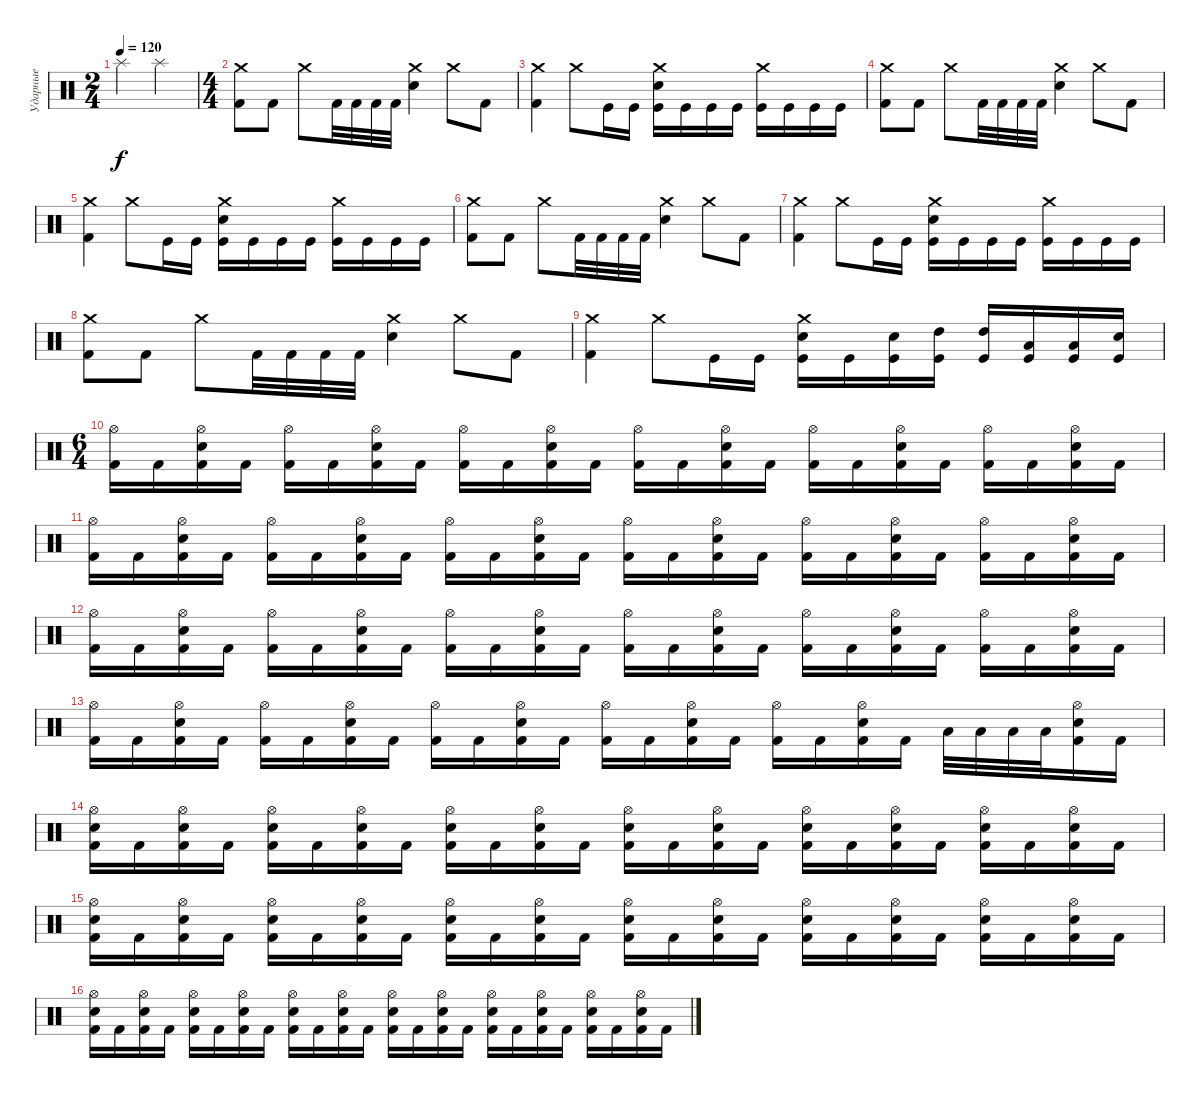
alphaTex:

\track ("Ударные" "Ударные") {instrument percussion}
\staff {score}
\articulation defaults
\ts (2 4)
\tempo 120
\clef neutral
\ks c "Splash (hit)".4{dy f} "Splash (hit)".4
|
\ts (4 4)
("Crash medium (hit)" "Kick (hit) 2").8 "Kick (hit) 2".8 "Crash medium (hit)".8 "Kick (hit) 2".32 "Kick (hit) 2".32 "Kick (hit) 2".32 "Kick (hit) 2".32 ("Crash medium (hit)" "Snare (hit) 2").4 "Crash medium (hit)".8 "Kick (hit) 2".8 |
("Crash medium (hit)" "Kick (hit) 2").4 "Crash medium (hit)".8 "Kick (hit)".16 "Kick (hit)".16 ("Crash medium (hit)" "Snare (hit) 2" "Kick (hit)").16 "Kick (hit)".16 "Kick (hit)".16 "Kick (hit)".16 ("Crash medium (hit)" "Kick (hit)").16 "Kick (hit)".16 "Kick (hit)".16 "Kick (hit)".16 |
("Crash medium (hit)" "Kick (hit) 2").8 "Kick (hit) 2".8 "Crash medium (hit)".8 "Kick (hit) 2".32 "Kick (hit) 2".32 "Kick (hit) 2".32 "Kick (hit) 2".32 ("Crash medium (hit)" "Snare (hit) 2").4 "Crash medium (hit)".8 "Kick (hit) 2".8 |
("Crash medium (hit)" "Kick (hit) 2").4 "Crash medium (hit)".8 "Kick (hit)".16 "Kick (hit)".16 ("Crash medium (hit)" "Snare (hit) 2" "Kick (hit)").16 "Kick (hit)".16 "Kick (hit)".16 "Kick (hit)".16 ("Crash medium (hit)" "Kick (hit)").16 "Kick (hit)".16 "Kick (hit)".16 "Kick (hit)".16 |
("Crash medium (hit)" "Kick (hit) 2").8 "Kick (hit) 2".8 "Crash medium (hit)".8 "Kick (hit) 2".32 "Kick (hit) 2".32 "Kick (hit) 2".32 "Kick (hit) 2".32 ("Crash medium (hit)" "Snare (hit) 2").4 "Crash medium (hit)".8 "Kick (hit) 2".8 |
("Crash medium (hit)" "Kick (hit) 2").4 "Crash medium (hit)".8 "Kick (hit)".16 "Kick (hit)".16 ("Crash medium (hit)" "Snare (hit) 2" "Kick (hit)").16 "Kick (hit)".16 "Kick (hit)".16 "Kick (hit)".16 ("Crash medium (hit)" "Kick (hit)").16 "Kick (hit)".16 "Kick (hit)".16 "Kick (hit)".16 |
("Crash medium (hit)" "Kick (hit) 2").8 "Kick (hit) 2".8 "Crash medium (hit)".8 "Kick (hit) 2".32 "Kick (hit) 2".32 "Kick (hit) 2".32 "Kick (hit) 2".32 ("Crash medium (hit)" "Snare (hit) 2").4 "Crash medium (hit)".8 "Kick (hit) 2".8 |
("Crash medium (hit)" "Kick (hit) 2").4 "Crash medium (hit)".8 "Kick (hit)".16 "Kick (hit)".16 ("Crash medium (hit)" "Snare (hit) 2" "Kick (hit)").16 "Kick (hit)".16 ("Snare (hit) 2" "Kick (hit)").16 ("High Tom (hit)" "Kick (hit)").16 ("High Tom (hit)" "Kick (hit)").16 ("Low Tom (hit)" "Kick (hit)").16 ("Low Tom (hit)" "Kick (hit)").16 ("Snare (hit) 2" "Kick (hit)").16 |
\ts (6 4)
("Hi-Hat (open)" "Kick (hit) 2").16 "Kick (hit) 2".16 ("Hi-Hat (open)" "Snare (hit) 2" "Kick (hit) 2").16 "Kick (hit) 2".16 ("Hi-Hat (open)" "Kick (hit) 2").16 "Kick (hit) 2".16 ("Hi-Hat (open)" "Snare (hit) 2" "Kick (hit) 2").16 "Kick (hit) 2".16 ("Hi-Hat (open)" "Kick (hit) 2").16 "Kick (hit) 2".16 ("Hi-Hat (open)" "Snare (hit) 2" "Kick (hit) 2").16 "Kick (hit) 2".16 ("Hi-Hat (open)" "Kick (hit) 2").16 "Kick (hit) 2".16 ("Hi-Hat (open)" "Snare (hit) 2" "Kick (hit) 2").16 "Kick (hit) 2".16 ("Hi-Hat (open)" "Kick (hit) 2").16 "Kick (hit) 2".16 ("Hi-Hat (open)" "Snare (hit) 2" "Kick (hit) 2").16 "Kick (hit) 2".16 ("Hi-Hat (open)" "Kick (hit) 2").16 "Kick (hit) 2".16 ("Hi-Hat (open)" "Snare (hit) 2" "Kick (hit) 2").16 "Kick (hit) 2".16 |
("Hi-Hat (open)" "Kick (hit) 2").16 "Kick (hit) 2".16 ("Hi-Hat (open)" "Snare (hit) 2" "Kick (hit) 2").16 "Kick (hit) 2".16 ("Hi-Hat (open)" "Kick (hit) 2").16 "Kick (hit) 2".16 ("Hi-Hat (open)" "Snare (hit) 2" "Kick (hit) 2").16 "Kick (hit) 2".16 ("Hi-Hat (open)" "Kick (hit) 2").16 "Kick (hit) 2".16 ("Hi-Hat (open)" "Snare (hit) 2" "Kick (hit) 2").16 "Kick (hit) 2".16 ("Hi-Hat (open)" "Kick (hit) 2").16 "Kick (hit) 2".16 ("Hi-Hat (open)" "Snare (hit) 2" "Kick (hit) 2").16 "Kick (hit) 2".16 ("Hi-Hat (open)" "Kick (hit) 2").16 "Kick (hit) 2".16 ("Hi-Hat (open)" "Snare (hit) 2" "Kick (hit) 2").16 "Kick (hit) 2".16 ("Hi-Hat (open)" "Kick (hit) 2").16 "Kick (hit) 2".16 ("Hi-Hat (open)" "Snare (hit) 2" "Kick (hit) 2").16 "Kick (hit) 2".16 |
("Hi-Hat (open)" "Kick (hit) 2").16 "Kick (hit) 2".16 ("Hi-Hat (open)" "Snare (hit) 2" "Kick (hit) 2").16 "Kick (hit) 2".16 ("Hi-Hat (open)" "Kick (hit) 2").16 "Kick (hit) 2".16 ("Hi-Hat (open)" "Snare (hit) 2" "Kick (hit) 2").16 "Kick (hit) 2".16 ("Hi-Hat (open)" "Kick (hit) 2").16 "Kick (hit) 2".16 ("Hi-Hat (open)" "Snare (hit) 2" "Kick (hit) 2").16 "Kick (hit) 2".16 ("Hi-Hat (open)" "Kick (hit) 2").16 "Kick (hit) 2".16 ("Hi-Hat (open)" "Snare (hit) 2" "Kick (hit) 2").16 "Kick (hit) 2".16 ("Hi-Hat (open)" "Kick (hit) 2").16 "Kick (hit) 2".16 ("Hi-Hat (open)" "Snare (hit) 2" "Kick (hit) 2").16 "Kick (hit) 2".16 ("Hi-Hat (open)" "Kick (hit) 2").16 "Kick (hit) 2".16 ("Hi-Hat (open)" "Snare (hit) 2" "Kick (hit) 2").16 "Kick (hit) 2".16 |
("Hi-Hat (open)" "Kick (hit) 2").16 "Kick (hit) 2".16 ("Hi-Hat (open)" "Snare (hit) 2" "Kick (hit) 2").16 "Kick (hit) 2".16 ("Hi-Hat (open)" "Kick (hit) 2").16 "Kick (hit) 2".16 ("Hi-Hat (open)" "Snare (hit) 2" "Kick (hit) 2").16 "Kick (hit) 2".16 ("Hi-Hat (open)" "Kick (hit) 2").16 "Kick (hit) 2".16 ("Hi-Hat (open)" "Snare (hit) 2" "Kick (hit) 2").16 "Kick (hit) 2".16 ("Hi-Hat (open)" "Kick (hit) 2").16 "Kick (hit) 2".16 ("Hi-Hat (open)" "Snare (hit) 2" "Kick (hit) 2").16 "Kick (hit) 2".16 ("Hi-Hat (open)" "Kick (hit) 2").16 "Kick (hit) 2".16 ("Hi-Hat (open)" "Snare (hit) 2" "Kick (hit) 2").16 "Kick (hit) 2".16 "Low Tom (hit)".32 "Low Tom (hit)".32 "Low Tom (hit)".32 "Low Tom (hit)".32 ("Hi-Hat (open)" "Snare (hit) 2" "Kick (hit) 2").16 "Kick (hit) 2".16 |
("Hi-Hat (open)" "Snare (hit) 2" "Kick (hit) 2").16 "Kick (hit) 2".16 ("Hi-Hat (open)" "Snare (hit) 2" "Kick (hit) 2").16 "Kick (hit) 2".16 ("Hi-Hat (open)" "Snare (hit) 2" "Kick (hit) 2").16 "Kick (hit) 2".16 ("Hi-Hat (open)" "Snare (hit) 2" "Kick (hit) 2").16 "Kick (hit) 2".16 ("Hi-Hat (open)" "Snare (hit) 2" "Kick (hit) 2").16 "Kick (hit) 2".16 ("Hi-Hat (open)" "Snare (hit) 2" "Kick (hit) 2").16 "Kick (hit) 2".16 ("Hi-Hat (open)" "Snare (hit) 2" "Kick (hit) 2").16 "Kick (hit) 2".16 ("Hi-Hat (open)" "Snare (hit) 2" "Kick (hit) 2").16 "Kick (hit) 2".16 ("Hi-Hat (open)" "Snare (hit) 2" "Kick (hit) 2").16 "Kick (hit) 2".16 ("Hi-Hat (open)" "Snare (hit) 2" "Kick (hit) 2").16 "Kick (hit) 2".16 ("Hi-Hat (open)" "Snare (hit) 2" "Kick (hit) 2").16 "Kick (hit) 2".16 ("Hi-Hat (open)" "Snare (hit) 2" "Kick (hit) 2").16 "Kick (hit) 2".16 |
("Hi-Hat (open)" "Snare (hit) 2" "Kick (hit) 2").16 "Kick (hit) 2".16 ("Hi-Hat (open)" "Snare (hit) 2" "Kick (hit) 2").16 "Kick (hit) 2".16 ("Hi-Hat (open)" "Snare (hit) 2" "Kick (hit) 2").16 "Kick (hit) 2".16 ("Hi-Hat (open)" "Snare (hit) 2" "Kick (hit) 2").16 "Kick (hit) 2".16 ("Hi-Hat (open)" "Snare (hit) 2" "Kick (hit) 2").16 "Kick (hit) 2".16 ("Hi-Hat (open)" "Snare (hit) 2" "Kick (hit) 2").16 "Kick (hit) 2".16 ("Hi-Hat (open)" "Snare (hit) 2" "Kick (hit) 2").16 "Kick (hit) 2".16 ("Hi-Hat (open)" "Snare (hit) 2" "Kick (hit) 2").16 "Kick (hit) 2".16 ("Hi-Hat (open)" "Snare (hit) 2" "Kick (hit) 2").16 "Kick (hit) 2".16 ("Hi-Hat (open)" "Snare (hit) 2" "Kick (hit) 2").16 "Kick (hit) 2".16 ("Hi-Hat (open)" "Snare (hit) 2" "Kick (hit) 2").16 "Kick (hit) 2".16 ("Hi-Hat (open)" "Snare (hit) 2" "Kick (hit) 2").16 "Kick (hit) 2".16 |
("Hi-Hat (open)" "Snare (hit) 2" "Kick (hit) 2").16 "Kick (hit) 2".16 ("Hi-Hat (open)" "Snare (hit) 2" "Kick (hit) 2").16 "Kick (hit) 2".16 ("Hi-Hat (open)" "Snare (hit) 2" "Kick (hit) 2").16 "Kick (hit) 2".16 ("Hi-Hat (open)" "Snare (hit) 2" "Kick (hit) 2").16 "Kick (hit) 2".16 ("Hi-Hat (open)" "Snare (hit) 2" "Kick (hit) 2").16 "Kick (hit) 2".16 ("Hi-Hat (open)" "Snare (hit) 2" "Kick (hit) 2").16 "Kick (hit) 2".16 ("Hi-Hat (open)" "Snare (hit) 2" "Kick (hit) 2").16 "Kick (hit) 2".16 ("Hi-Hat (open)" "Snare (hit) 2" "Kick (hit) 2").16 "Kick (hit) 2".16 ("Hi-Hat (open)" "Snare (hit) 2" "Kick (hit) 2").16 "Kick (hit) 2".16 ("Hi-Hat (open)" "Snare (hit) 2" "Kick (hit) 2").16 "Kick (hit) 2".16 ("Hi-Hat (open)" "Snare (hit) 2" "Kick (hit) 2").16 "Kick (hit) 2".16 ("Hi-Hat (open)" "Snare (hit) 2" "Kick (hit) 2").16 "Kick (hit) 2".16
